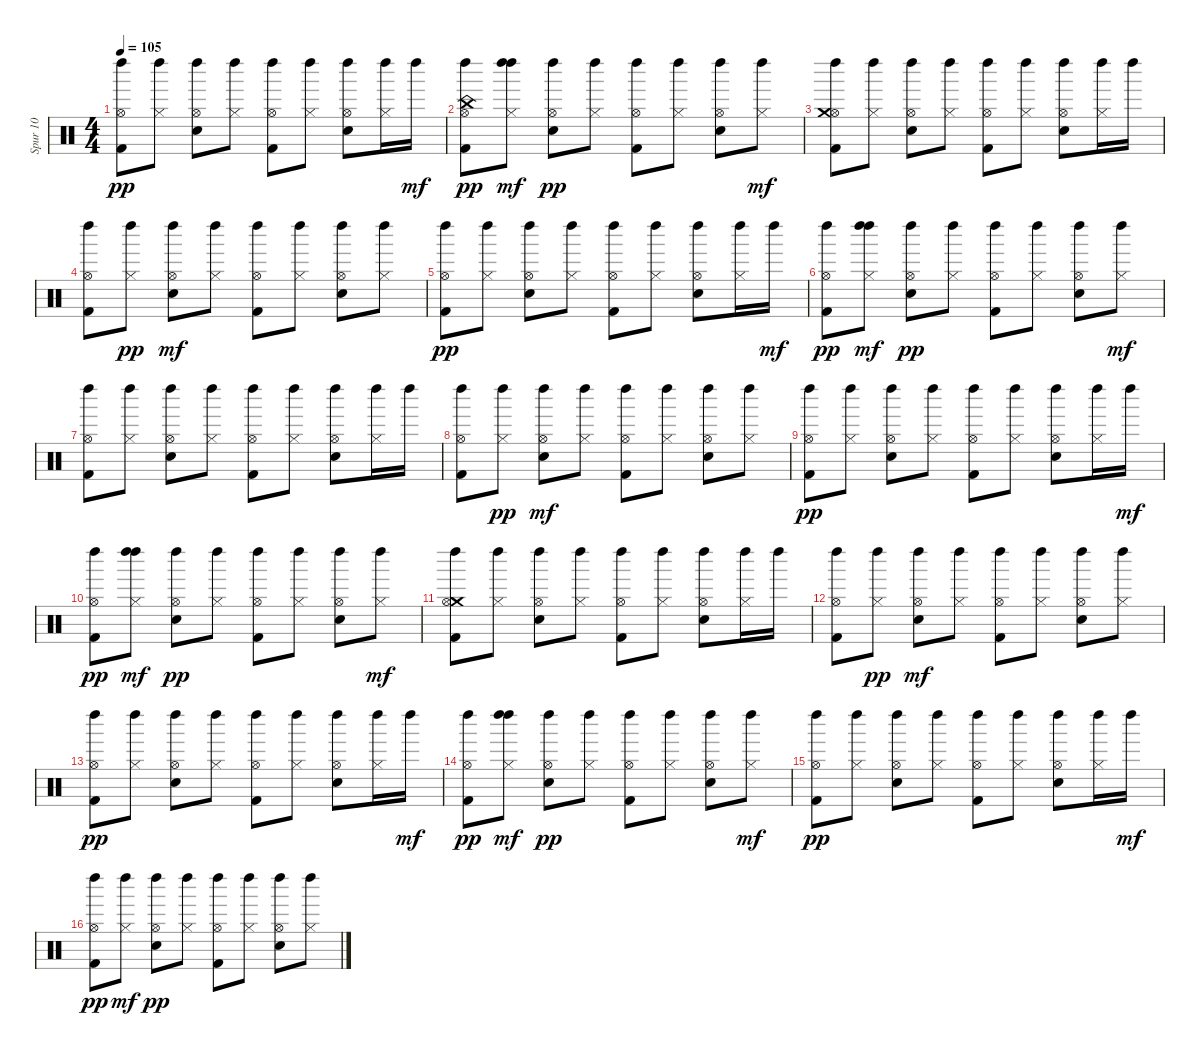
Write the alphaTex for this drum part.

\track ("Spur 10" "Spur 10") {instrument percussion}
\staff {score}
\articulation defaults
\ts (4 4)
\tempo 105
\clef neutral
\ks c
("Left Maraca (hit)" "Hi-Hat (open)" "Kick (hit) 2").8{dy pp} ("Left Maraca (hit)" "Hi-Hat (closed)").8 ("Left Maraca (hit)" "Hi-Hat (open)" "Snare (hit) 2").8 ("Left Maraca (hit)" "Hi-Hat (closed)").8 ("Left Maraca (hit)" "Hi-Hat (open)" "Kick (hit) 2").8 ("Left Maraca (hit)" "Hi-Hat (closed)").8 ("Left Maraca (hit)" "Hi-Hat (open)" "Snare (hit) 2").8 ("Left Maraca (hit)" "Hi-Hat (closed)").16 "Left Maraca (hit)".16{dy mf} |
("Left Maraca (hit)" "Hi-Hat (open)" "Kick (hit) 2" "China (hit)").8{dy pp} ("Left Maraca (hit)" "Hi-Hat (closed)" "Left Maraca (hit)").8{dy mf} ("Left Maraca (hit)" "Hi-Hat (open)" "Snare (hit) 2").8{dy pp} ("Left Maraca (hit)" "Hi-Hat (closed)").8 ("Left Maraca (hit)" "Hi-Hat (open)" "Kick (hit) 2").8 ("Left Maraca (hit)" "Hi-Hat (closed)").8 ("Left Maraca (hit)" "Hi-Hat (open)" "Snare (hit) 2").8 ("Hi-Hat (closed)" "Left Maraca (hit)").8{dy mf} |
("Kick (hit) 2" "Hi-Hat (open)" "Crash medium (hit)" "Left Maraca (hit)").8 ("Hi-Hat (closed)" "Left Maraca (hit)").8 ("Snare (hit) 2" "Hi-Hat (open)" "Left Maraca (hit)").8 ("Hi-Hat (closed)" "Left Maraca (hit)").8 ("Kick (hit) 2" "Hi-Hat (open)" "Left Maraca (hit)").8 ("Hi-Hat (closed)" "Left Maraca (hit)").8 ("Snare (hit) 2" "Hi-Hat (open)" "Left Maraca (hit)").8 ("Hi-Hat (closed)" "Left Maraca (hit)").16 "Left Maraca (hit)".16 |
("Kick (hit) 2" "Hi-Hat (open)" "Left Maraca (hit)").8 ("Left Maraca (hit)" "Hi-Hat (closed)").8{dy pp} ("Snare (hit) 2" "Hi-Hat (open)" "Left Maraca (hit)").8{dy mf} ("Hi-Hat (closed)" "Left Maraca (hit)").8 ("Kick (hit) 2" "Hi-Hat (open)" "Left Maraca (hit)").8 ("Hi-Hat (closed)" "Left Maraca (hit)").8 ("Snare (hit) 2" "Hi-Hat (open)" "Left Maraca (hit)").8 ("Hi-Hat (closed)" "Left Maraca (hit)").8 |
("Left Maraca (hit)" "Hi-Hat (open)" "Kick (hit) 2").8{dy pp} ("Left Maraca (hit)" "Hi-Hat (closed)").8 ("Left Maraca (hit)" "Hi-Hat (open)" "Snare (hit) 2").8 ("Left Maraca (hit)" "Hi-Hat (closed)").8 ("Left Maraca (hit)" "Hi-Hat (open)" "Kick (hit) 2").8 ("Left Maraca (hit)" "Hi-Hat (closed)").8 ("Left Maraca (hit)" "Hi-Hat (open)" "Snare (hit) 2").8 ("Left Maraca (hit)" "Hi-Hat (closed)").16 "Left Maraca (hit)".16{dy mf} |
("Left Maraca (hit)" "Hi-Hat (open)" "Kick (hit) 2").8{dy pp} ("Left Maraca (hit)" "Hi-Hat (closed)" "Left Maraca (hit)").8{dy mf} ("Left Maraca (hit)" "Hi-Hat (open)" "Snare (hit) 2").8{dy pp} ("Left Maraca (hit)" "Hi-Hat (closed)").8 ("Left Maraca (hit)" "Hi-Hat (open)" "Kick (hit) 2").8 ("Left Maraca (hit)" "Hi-Hat (closed)").8 ("Left Maraca (hit)" "Hi-Hat (open)" "Snare (hit) 2").8 ("Hi-Hat (closed)" "Left Maraca (hit)").8{dy mf} |
("Kick (hit) 2" "Hi-Hat (open)" "Left Maraca (hit)").8 ("Hi-Hat (closed)" "Left Maraca (hit)").8 ("Snare (hit) 2" "Hi-Hat (open)" "Left Maraca (hit)").8 ("Hi-Hat (closed)" "Left Maraca (hit)").8 ("Kick (hit) 2" "Hi-Hat (open)" "Left Maraca (hit)").8 ("Hi-Hat (closed)" "Left Maraca (hit)").8 ("Snare (hit) 2" "Hi-Hat (open)" "Left Maraca (hit)").8 ("Hi-Hat (closed)" "Left Maraca (hit)").16 "Left Maraca (hit)".16 |
("Kick (hit) 2" "Hi-Hat (open)" "Left Maraca (hit)").8 ("Left Maraca (hit)" "Hi-Hat (closed)").8{dy pp} ("Snare (hit) 2" "Hi-Hat (open)" "Left Maraca (hit)").8{dy mf} ("Hi-Hat (closed)" "Left Maraca (hit)").8 ("Kick (hit) 2" "Hi-Hat (open)" "Left Maraca (hit)").8 ("Hi-Hat (closed)" "Left Maraca (hit)").8 ("Snare (hit) 2" "Hi-Hat (open)" "Left Maraca (hit)").8 ("Hi-Hat (closed)" "Left Maraca (hit)").8 |
("Left Maraca (hit)" "Hi-Hat (open)" "Kick (hit) 2").8{dy pp} ("Left Maraca (hit)" "Hi-Hat (closed)").8 ("Left Maraca (hit)" "Hi-Hat (open)" "Snare (hit) 2").8 ("Left Maraca (hit)" "Hi-Hat (closed)").8 ("Left Maraca (hit)" "Hi-Hat (open)" "Kick (hit) 2").8 ("Left Maraca (hit)" "Hi-Hat (closed)").8 ("Left Maraca (hit)" "Hi-Hat (open)" "Snare (hit) 2").8 ("Left Maraca (hit)" "Hi-Hat (closed)").16 "Left Maraca (hit)".16{dy mf} |
("Left Maraca (hit)" "Hi-Hat (open)" "Kick (hit) 2").8{dy pp} ("Left Maraca (hit)" "Hi-Hat (closed)" "Left Maraca (hit)").8{dy mf} ("Left Maraca (hit)" "Hi-Hat (open)" "Snare (hit) 2").8{dy pp} ("Left Maraca (hit)" "Hi-Hat (closed)").8 ("Left Maraca (hit)" "Hi-Hat (open)" "Kick (hit) 2").8 ("Left Maraca (hit)" "Hi-Hat (closed)").8 ("Left Maraca (hit)" "Hi-Hat (open)" "Snare (hit) 2").8 ("Hi-Hat (closed)" "Left Maraca (hit)").8{dy mf} |
("Crash medium (hit)" "Kick (hit) 2" "Hi-Hat (open)" "Left Maraca (hit)").8 ("Hi-Hat (closed)" "Left Maraca (hit)").8 ("Snare (hit) 2" "Hi-Hat (open)" "Left Maraca (hit)").8 ("Hi-Hat (closed)" "Left Maraca (hit)").8 ("Kick (hit) 2" "Hi-Hat (open)" "Left Maraca (hit)").8 ("Hi-Hat (closed)" "Left Maraca (hit)").8 ("Snare (hit) 2" "Hi-Hat (open)" "Left Maraca (hit)").8 ("Hi-Hat (closed)" "Left Maraca (hit)").16 "Left Maraca (hit)".16 |
("Kick (hit) 2" "Hi-Hat (open)" "Left Maraca (hit)").8 ("Left Maraca (hit)" "Hi-Hat (closed)").8{dy pp} ("Snare (hit) 2" "Hi-Hat (open)" "Left Maraca (hit)").8{dy mf} ("Hi-Hat (closed)" "Left Maraca (hit)").8 ("Kick (hit) 2" "Hi-Hat (open)" "Left Maraca (hit)").8 ("Hi-Hat (closed)" "Left Maraca (hit)").8 ("Snare (hit) 2" "Hi-Hat (open)" "Left Maraca (hit)").8 ("Hi-Hat (closed)" "Left Maraca (hit)").8 |
("Left Maraca (hit)" "Hi-Hat (open)" "Kick (hit) 2").8{dy pp} ("Left Maraca (hit)" "Hi-Hat (closed)").8 ("Left Maraca (hit)" "Hi-Hat (open)" "Snare (hit) 2").8 ("Left Maraca (hit)" "Hi-Hat (closed)").8 ("Left Maraca (hit)" "Hi-Hat (open)" "Kick (hit) 2").8 ("Left Maraca (hit)" "Hi-Hat (closed)").8 ("Left Maraca (hit)" "Hi-Hat (open)" "Snare (hit) 2").8 ("Left Maraca (hit)" "Hi-Hat (closed)").16 "Left Maraca (hit)".16{dy mf} |
("Left Maraca (hit)" "Hi-Hat (open)" "Kick (hit) 2").8{dy pp} ("Left Maraca (hit)" "Hi-Hat (closed)" "Left Maraca (hit)").8{dy mf} ("Left Maraca (hit)" "Hi-Hat (open)" "Snare (hit) 2").8{dy pp} ("Left Maraca (hit)" "Hi-Hat (closed)").8 ("Left Maraca (hit)" "Hi-Hat (open)" "Kick (hit) 2").8 ("Left Maraca (hit)" "Hi-Hat (closed)").8 ("Left Maraca (hit)" "Hi-Hat (open)" "Snare (hit) 2").8 ("Hi-Hat (closed)" "Left Maraca (hit)").8{dy mf} |
("Kick (hit) 2" "Left Maraca (hit)" "Hi-Hat (open)").8{dy pp} ("Left Maraca (hit)" "Hi-Hat (closed)").8 ("Snare (hit) 2" "Left Maraca (hit)" "Hi-Hat (open)").8 ("Left Maraca (hit)" "Hi-Hat (closed)").8 ("Kick (hit) 2" "Left Maraca (hit)" "Hi-Hat (open)").8 ("Left Maraca (hit)" "Hi-Hat (closed)").8 ("Snare (hit) 2" "Left Maraca (hit)" "Hi-Hat (open)").8 ("Left Maraca (hit)" "Hi-Hat (closed)").16 "Left Maraca (hit)".16{dy mf} |
("Kick (hit) 2" "Left Maraca (hit)" "Hi-Hat (open)").8{dy pp} ("Hi-Hat (closed)" "Left Maraca (hit)").8{dy mf} ("Snare (hit) 2" "Left Maraca (hit)" "Hi-Hat (open)").8{dy pp} ("Left Maraca (hit)" "Hi-Hat (closed)").8 ("Kick (hit) 2" "Left Maraca (hit)" "Hi-Hat (open)").8 ("Left Maraca (hit)" "Hi-Hat (closed)").8 ("Snare (hit) 2" "Left Maraca (hit)" "Hi-Hat (open)").8 ("Left Maraca (hit)" "Hi-Hat (closed)").8
